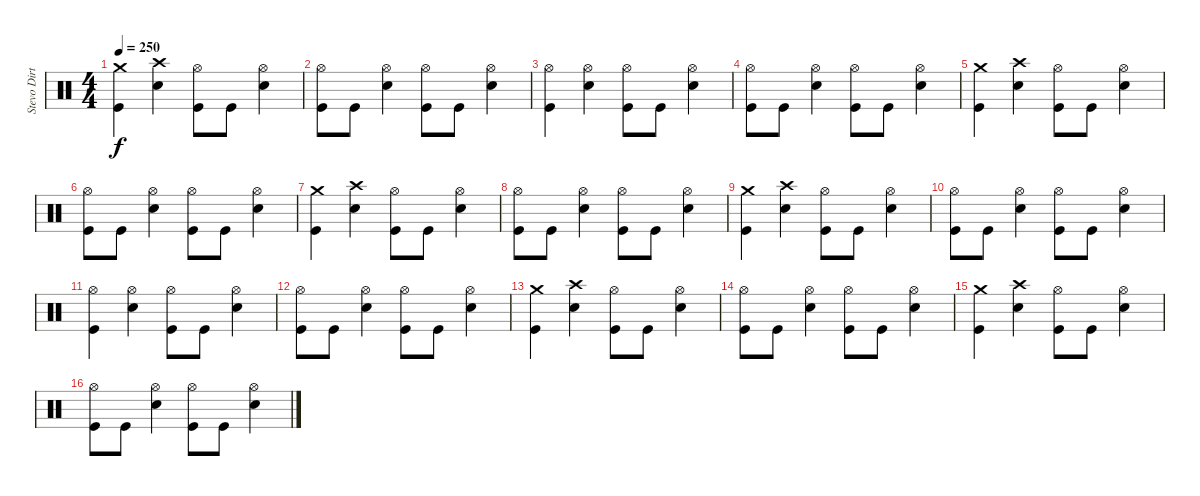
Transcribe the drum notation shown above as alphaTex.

\track ("Stevo Dirty Poo" "Stevo Dirt") {instrument percussion}
\staff {score}
\articulation defaults
\ts (4 4)
\tempo 250
\clef neutral
\ks c
("Crash medium (hit)" "Kick (hit)").4{dy f} ("Crash high (hit)" "Snare (hit) 2").4 ("Hi-Hat (open)" "Kick (hit)").8 "Kick (hit)".8 ("Hi-Hat (open)" "Snare (hit) 2").4 |
("Hi-Hat (open)" "Kick (hit)").8 "Kick (hit)".8 ("Hi-Hat (open)" "Snare (hit) 2").4 ("Hi-Hat (open)" "Kick (hit)").8 "Kick (hit)".8 ("Hi-Hat (open)" "Snare (hit) 2").4 |
("Hi-Hat (open)" "Kick (hit)").4 ("Hi-Hat (open)" "Snare (hit) 2").4 ("Hi-Hat (open)" "Kick (hit)").8 "Kick (hit)".8 ("Hi-Hat (open)" "Snare (hit) 2").4 |
("Hi-Hat (open)" "Kick (hit)").8 "Kick (hit)".8 ("Hi-Hat (open)" "Snare (hit) 2").4 ("Hi-Hat (open)" "Kick (hit)").8 "Kick (hit)".8 ("Hi-Hat (open)" "Snare (hit) 2").4 |
("Crash medium (hit)" "Kick (hit)").4 ("Crash high (hit)" "Snare (hit) 2").4 ("Hi-Hat (open)" "Kick (hit)").8 "Kick (hit)".8 ("Hi-Hat (open)" "Snare (hit) 2").4 |
("Hi-Hat (open)" "Kick (hit)").8 "Kick (hit)".8 ("Hi-Hat (open)" "Snare (hit) 2").4 ("Hi-Hat (open)" "Kick (hit)").8 "Kick (hit)".8 ("Hi-Hat (open)" "Snare (hit) 2").4 |
("Crash medium (hit)" "Kick (hit)").4 ("Crash high (hit)" "Snare (hit) 2").4 ("Hi-Hat (open)" "Kick (hit)").8 "Kick (hit)".8 ("Hi-Hat (open)" "Snare (hit) 2").4 |
("Hi-Hat (open)" "Kick (hit)").8 "Kick (hit)".8 ("Hi-Hat (open)" "Snare (hit) 2").4 ("Hi-Hat (open)" "Kick (hit)").8 "Kick (hit)".8 ("Hi-Hat (open)" "Snare (hit) 2").4 |
("Crash medium (hit)" "Kick (hit)").4 ("Crash high (hit)" "Snare (hit) 2").4 ("Hi-Hat (open)" "Kick (hit)").8 "Kick (hit)".8 ("Hi-Hat (open)" "Snare (hit) 2").4 |
("Hi-Hat (open)" "Kick (hit)").8 "Kick (hit)".8 ("Hi-Hat (open)" "Snare (hit) 2").4 ("Hi-Hat (open)" "Kick (hit)").8 "Kick (hit)".8 ("Hi-Hat (open)" "Snare (hit) 2").4 |
("Hi-Hat (open)" "Kick (hit)").4 ("Hi-Hat (open)" "Snare (hit) 2").4 ("Hi-Hat (open)" "Kick (hit)").8 "Kick (hit)".8 ("Hi-Hat (open)" "Snare (hit) 2").4 |
("Hi-Hat (open)" "Kick (hit)").8 "Kick (hit)".8 ("Hi-Hat (open)" "Snare (hit) 2").4 ("Hi-Hat (open)" "Kick (hit)").8 "Kick (hit)".8 ("Hi-Hat (open)" "Snare (hit) 2").4 |
("Crash medium (hit)" "Kick (hit)").4 ("Crash high (hit)" "Snare (hit) 2").4 ("Hi-Hat (open)" "Kick (hit)").8 "Kick (hit)".8 ("Hi-Hat (open)" "Snare (hit) 2").4 |
("Hi-Hat (open)" "Kick (hit)").8 "Kick (hit)".8 ("Hi-Hat (open)" "Snare (hit) 2").4 ("Hi-Hat (open)" "Kick (hit)").8 "Kick (hit)".8 ("Hi-Hat (open)" "Snare (hit) 2").4 |
("Crash medium (hit)" "Kick (hit)").4 ("Crash high (hit)" "Snare (hit) 2").4 ("Hi-Hat (open)" "Kick (hit)").8 "Kick (hit)".8 ("Hi-Hat (open)" "Snare (hit) 2").4 |
("Hi-Hat (open)" "Kick (hit)").8 "Kick (hit)".8 ("Hi-Hat (open)" "Snare (hit) 2").4 ("Hi-Hat (open)" "Kick (hit)").8 "Kick (hit)".8 ("Hi-Hat (open)" "Snare (hit) 2").4
